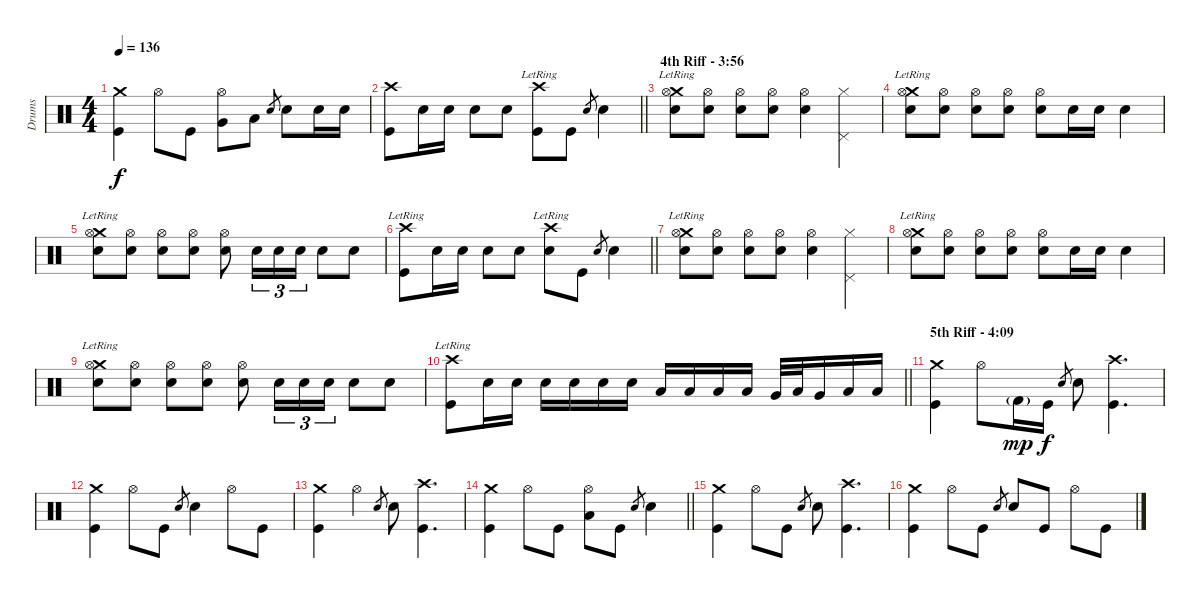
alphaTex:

\track ("Drums" "Drums") {instrument percussion}
\staff {score}
\articulation defaults
\ts (4 4)
\tempo 136
\clef neutral
\ks c
("Crash medium (hit)" "Kick (hit)").4{dy f} "Hi-Hat (open)".8 "Kick (hit)".8 ("Hi-Hat (open)" "Very Low Tom (hit)").8 "Low Floor Tom (hit)".8 "Snare (hit) 2".8{gr} "Snare (hit) 2".8 "Snare (hit) 2".16 "Snare (hit) 2".16 |
\barLineRight lightlight
("Crash high (hit)" "Kick (hit)").8 "Snare (hit) 2".16 "Snare (hit) 2".16 "Snare (hit) 2".8 "Snare (hit) 2".8 ("Crash high (hit)"{lr} "Kick (hit)").8 "Kick (hit)".8 "Snare (hit) 2".8{gr} "Snare (hit) 2".4 |
\section ("" "4th Riff - 3:56")
("Crash medium (hit)"{lr} "Hi-Hat (open)" "Snare (hit) 2").8 ("Hi-Hat (open)" "Snare (hit) 2").8 ("Hi-Hat (open)" "Snare (hit) 2").8 ("Hi-Hat (open)" "Snare (hit) 2").8 ("Hi-Hat (open)" "Snare (hit) 2").4 ("Pedal Hi-Hat (hit)" "Hi-Hat (closed)").4 |
("Crash medium (hit)"{lr} "Hi-Hat (open)" "Snare (hit) 2").8 ("Hi-Hat (open)" "Snare (hit) 2").8 ("Hi-Hat (open)" "Snare (hit) 2").8 ("Hi-Hat (open)" "Snare (hit) 2").8 ("Hi-Hat (open)" "Snare (hit) 2").8 "Snare (hit) 2".16 "Snare (hit) 2".16 "Snare (hit) 2".4 |
("Crash medium (hit)"{lr} "Hi-Hat (open)" "Snare (hit) 2").8 ("Hi-Hat (open)" "Snare (hit) 2").8 ("Hi-Hat (open)" "Snare (hit) 2").8 ("Hi-Hat (open)" "Snare (hit) 2").8 ("Hi-Hat (open)" "Snare (hit) 2").8 "Snare (hit) 2".16{tu (3 2)} "Snare (hit) 2".16{tu (3 2)} "Snare (hit) 2".16{tu (3 2)} "Snare (hit) 2".8 "Snare (hit) 2".8 |
\barLineRight lightlight
("Crash high (hit)"{lr} "Kick (hit)").8 "Snare (hit) 2".16 "Snare (hit) 2".16 "Snare (hit) 2".8 "Snare (hit) 2".8 ("Crash high (hit)"{lr} "Snare (hit) 2").8 "Kick (hit)".8 "Snare (hit) 2".8{gr} "Snare (hit) 2".4 |
("Crash medium (hit)"{lr} "Hi-Hat (open)" "Snare (hit) 2").8 ("Hi-Hat (open)" "Snare (hit) 2").8 ("Hi-Hat (open)" "Snare (hit) 2").8 ("Hi-Hat (open)" "Snare (hit) 2").8 ("Hi-Hat (open)" "Snare (hit) 2").4 ("Pedal Hi-Hat (hit)" "Hi-Hat (closed)").4 |
("Crash medium (hit)"{lr} "Hi-Hat (open)" "Snare (hit) 2").8 ("Hi-Hat (open)" "Snare (hit) 2").8 ("Hi-Hat (open)" "Snare (hit) 2").8 ("Hi-Hat (open)" "Snare (hit) 2").8 ("Hi-Hat (open)" "Snare (hit) 2").8 "Snare (hit) 2".16 "Snare (hit) 2".16 "Snare (hit) 2".4 |
("Crash medium (hit)"{lr} "Hi-Hat (open)" "Snare (hit) 2").8 ("Hi-Hat (open)" "Snare (hit) 2").8 ("Hi-Hat (open)" "Snare (hit) 2").8 ("Hi-Hat (open)" "Snare (hit) 2").8 ("Hi-Hat (open)" "Snare (hit) 2").8 "Snare (hit) 2".16{tu (3 2)} "Snare (hit) 2".16{tu (3 2)} "Snare (hit) 2".16{tu (3 2)} "Snare (hit) 2".8 "Snare (hit) 2".8 |
\barLineRight lightlight
("Crash high (hit)"{lr} "Kick (hit)").8 "Snare (hit) 2".16 "Snare (hit) 2".16 "Snare (hit) 2".16 "Snare (hit) 2".16 "Snare (hit) 2".16 "Snare (hit) 2".16 "Low Tom (hit)".16 "Low Tom (hit)".16 "Low Tom (hit)".16 "Low Tom (hit)".16 "Very Low Tom (hit)".32 "Low Tom (hit)".32 "Very Low Tom (hit)".16 "Low Floor Tom (hit)".16 "Low Floor Tom (hit)".16 |
\section ("" "5th Riff - 4:09")
("Crash medium (hit)" "Kick (hit)").4 "Hi-Hat (open)".8 "Kick (hit) 2"{g}.16{dy mp} "Kick (hit)".16{dy f} "Snare (hit) 2".8{gr} "Snare (hit) 2".8 ("Crash high (hit)" "Kick (hit)").4{d} |
("Crash medium (hit)" "Kick (hit)").4 "Hi-Hat (open)".8 "Kick (hit)".8 "Snare (hit) 2".8{gr} "Snare (hit) 2".4 "Hi-Hat (open)".8 "Kick (hit)".8 |
("Crash medium (hit)" "Kick (hit)").4 "Hi-Hat (open)".4 "Snare (hit) 2".8{gr} "Snare (hit) 2".8 ("Crash high (hit)" "Kick (hit)").4{d} |
\barLineRight lightlight
("Crash medium (hit)" "Kick (hit)").4 "Hi-Hat (open)".8 "Kick (hit)".8 ("Hi-Hat (open)" "Low Tom (hit)").8 "Kick (hit)".8 "Snare (hit) 2".8{gr} "Snare (hit) 2".4 |
("Crash medium (hit)" "Kick (hit)").4 "Hi-Hat (open)".8 "Kick (hit)".8 "Snare (hit) 2".8{gr} "Snare (hit) 2".8 ("Crash high (hit)" "Kick (hit)").4{d} |
("Crash medium (hit)" "Kick (hit)").4 "Hi-Hat (open)".8 "Kick (hit)".8 "Snare (hit) 2".8{gr} "Snare (hit) 2".8 "Kick (hit)".8 "Hi-Hat (open)".8 "Kick (hit)".8
